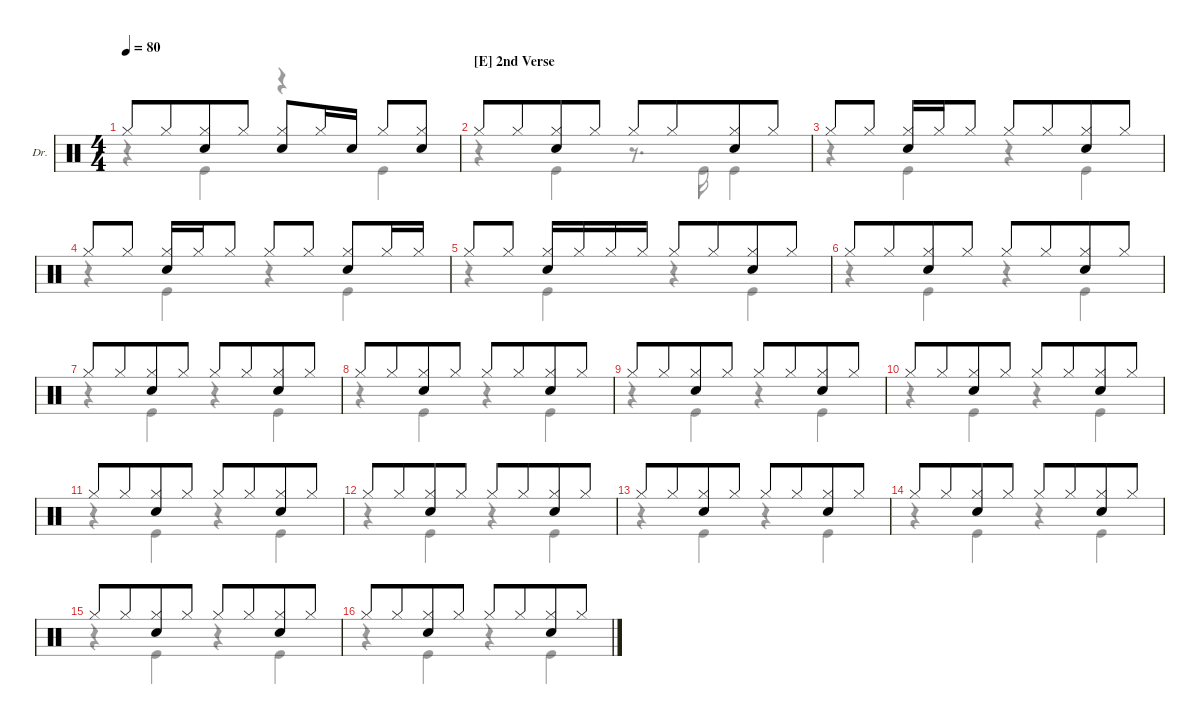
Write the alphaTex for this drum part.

\defaultSystemsLayout 4
\hideDynamics
\bracketExtendMode groupsimilarinstruments
\firstSystemTrackNameOrientation horizontal
\otherSystemsTrackNameOrientation horizontal
\track ("Drums" "Dr.") {multiBarRest instrument percussion}
\staff {score}
\articulation defaults
\voice
\ts (4 4)
\tempo 80
\clef neutral
\ks c "Hi-Hat (closed)".8{dy mf} "Hi-Hat (closed)".8{beam merge}
("Hi-Hat (closed)" "Snare (hit) 2").8 "Hi-Hat (closed)".8 ("Hi-Hat (closed)" "Snare (hit) 2").8 "Hi-Hat (closed)".16 "Snare (hit) 2".16 "Hi-Hat (closed)".8 ("Hi-Hat (closed)" "Snare (hit) 2").8 |
\section ("E" "2nd Verse")
"Hi-Hat (closed)".8 "Hi-Hat (closed)".8{beam merge} ("Hi-Hat (closed)" "Snare (hit) 2").8 "Hi-Hat (closed)".8 "Hi-Hat (closed)".8 "Hi-Hat (closed)".8{beam merge} ("Hi-Hat (closed)" "Snare (hit) 2").8 "Hi-Hat (closed)".8 |
"Hi-Hat (closed)".8 "Hi-Hat (closed)".8 ("Hi-Hat (closed)" "Snare (hit) 2").16 "Hi-Hat (closed)".16 "Hi-Hat (closed)".8 "Hi-Hat (closed)".8 "Hi-Hat (closed)".8{beam merge} ("Hi-Hat (closed)" "Snare (hit) 2").8 "Hi-Hat (closed)".8 |
"Hi-Hat (closed)".8 "Hi-Hat (closed)".8 ("Hi-Hat (closed)" "Snare (hit) 2").16 "Hi-Hat (closed)".16 "Hi-Hat (closed)".8 "Hi-Hat (closed)".8 "Hi-Hat (closed)".8 ("Hi-Hat (closed)" "Snare (hit) 2").8 "Hi-Hat (closed)".16 "Hi-Hat (closed)".16 |
"Hi-Hat (closed)".8 "Hi-Hat (closed)".8 ("Hi-Hat (closed)" "Snare (hit) 2").16 "Hi-Hat (closed)".16 "Hi-Hat (closed)".16 "Hi-Hat (closed)".16 "Hi-Hat (closed)".8 "Hi-Hat (closed)".8{beam merge} ("Hi-Hat (closed)" "Snare (hit) 2").8 "Hi-Hat (closed)".8 |
"Hi-Hat (closed)".8 "Hi-Hat (closed)".8{beam merge} ("Hi-Hat (closed)" "Snare (hit) 2").8 "Hi-Hat (closed)".8 "Hi-Hat (closed)".8 "Hi-Hat (closed)".8{beam merge} ("Hi-Hat (closed)" "Snare (hit) 2").8 "Hi-Hat (closed)".8 |
"Hi-Hat (closed)".8 "Hi-Hat (closed)".8{beam merge} ("Hi-Hat (closed)" "Snare (hit) 2").8 "Hi-Hat (closed)".8 "Hi-Hat (closed)".8 "Hi-Hat (closed)".8{beam merge} ("Hi-Hat (closed)" "Snare (hit) 2").8 "Hi-Hat (closed)".8 |
"Hi-Hat (closed)".8 "Hi-Hat (closed)".8{beam merge} ("Hi-Hat (closed)" "Snare (hit) 2").8 "Hi-Hat (closed)".8 "Hi-Hat (closed)".8 "Hi-Hat (closed)".8{beam merge} ("Hi-Hat (closed)" "Snare (hit) 2").8 "Hi-Hat (closed)".8 |
"Hi-Hat (closed)".8 "Hi-Hat (closed)".8{beam merge} ("Hi-Hat (closed)" "Snare (hit) 2").8 "Hi-Hat (closed)".8 "Hi-Hat (closed)".8 "Hi-Hat (closed)".8{beam merge} ("Hi-Hat (closed)" "Snare (hit) 2").8 "Hi-Hat (closed)".8 |
"Hi-Hat (closed)".8 "Hi-Hat (closed)".8{beam merge} ("Hi-Hat (closed)" "Snare (hit) 2").8 "Hi-Hat (closed)".8 "Hi-Hat (closed)".8 "Hi-Hat (closed)".8{beam merge} ("Hi-Hat (closed)" "Snare (hit) 2").8 "Hi-Hat (closed)".8 |
"Hi-Hat (closed)".8 "Hi-Hat (closed)".8{beam merge} ("Hi-Hat (closed)" "Snare (hit) 2").8 "Hi-Hat (closed)".8 "Hi-Hat (closed)".8 "Hi-Hat (closed)".8{beam merge} ("Hi-Hat (closed)" "Snare (hit) 2").8 "Hi-Hat (closed)".8 |
"Hi-Hat (closed)".8 "Hi-Hat (closed)".8{beam merge} ("Hi-Hat (closed)" "Snare (hit) 2").8 "Hi-Hat (closed)".8 "Hi-Hat (closed)".8 "Hi-Hat (closed)".8{beam merge} ("Hi-Hat (closed)" "Snare (hit) 2").8 "Hi-Hat (closed)".8 |
"Hi-Hat (closed)".8 "Hi-Hat (closed)".8{beam merge} ("Hi-Hat (closed)" "Snare (hit) 2").8 "Hi-Hat (closed)".8 "Hi-Hat (closed)".8 "Hi-Hat (closed)".8{beam merge} ("Hi-Hat (closed)" "Snare (hit) 2").8 "Hi-Hat (closed)".8 |
"Hi-Hat (closed)".8 "Hi-Hat (closed)".8{beam merge} ("Hi-Hat (closed)" "Snare (hit) 2").8 "Hi-Hat (closed)".8 "Hi-Hat (closed)".8 "Hi-Hat (closed)".8{beam merge} ("Hi-Hat (closed)" "Snare (hit) 2").8 "Hi-Hat (closed)".8 |
"Hi-Hat (closed)".8 "Hi-Hat (closed)".8{beam merge} ("Hi-Hat (closed)" "Snare (hit) 2").8 "Hi-Hat (closed)".8 "Hi-Hat (closed)".8 "Hi-Hat (closed)".8{beam merge} ("Hi-Hat (closed)" "Snare (hit) 2").8 "Hi-Hat (closed)".8 |
"Hi-Hat (closed)".8 "Hi-Hat (closed)".8{beam merge} ("Hi-Hat (closed)" "Snare (hit) 2").8 "Hi-Hat (closed)".8 "Hi-Hat (closed)".8 "Hi-Hat (closed)".8{beam merge} ("Hi-Hat (closed)" "Snare (hit) 2").8 "Hi-Hat (closed)".8
\voice
\clef neutral
\ottava regular
\simile none
\ks c
r.4{dy mf} "Kick (hit)".4 r.4 "Kick (hit)".4 |
r.4 "Kick (hit)".4 r.8{d} "Kick (hit)".16 "Kick (hit)".4 |
r.4 "Kick (hit)".4 r.4 "Kick (hit)".4 |
r.4 "Kick (hit)".4 r.4 "Kick (hit)".4 |
r.4 "Kick (hit)".4 r.4 "Kick (hit)".4 |
r.4 "Kick (hit)".4 r.4 "Kick (hit)".4 |
r.4 "Kick (hit)".4 r.4 "Kick (hit)".4 |
r.4 "Kick (hit)".4 r.4 "Kick (hit)".4 |
r.4 "Kick (hit)".4 r.4 "Kick (hit)".4 |
r.4 "Kick (hit)".4 r.4 "Kick (hit)".4 |
r.4 "Kick (hit)".4 r.4 "Kick (hit)".4 |
r.4 "Kick (hit)".4 r.4 "Kick (hit)".4 |
r.4 "Kick (hit)".4 r.4 "Kick (hit)".4 |
r.4 "Kick (hit)".4 r.4 "Kick (hit)".4 |
r.4 "Kick (hit)".4 r.4 "Kick (hit)".4 |
r.4 "Kick (hit)".4 r.4 "Kick (hit)".4
